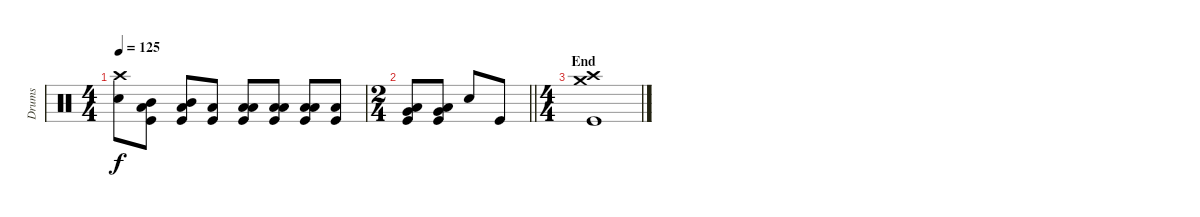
\track ("Drums" "Drums") {instrument percussion}
\staff {score}
\articulation defaults
\ts (4 4)
\tempo 125
\clef neutral
\ks c
("Crash high (hit)" "Snare (hit) 2").8{dy f} ("Mid Tom (hit)" "Low Floor Tom (hit)" "Kick (hit)").8 ("Mid Tom (hit)" "Low Floor Tom (hit)" "Kick (hit)").8 ("Low Floor Tom (hit)" "Kick (hit)").8 ("Low Tom (hit)" "Low Floor Tom (hit)" "Kick (hit)").8 ("Low Tom (hit)" "Low Floor Tom (hit)" "Kick (hit)").8 ("Low Tom (hit)" "Low Floor Tom (hit)" "Kick (hit)").8 ("Low Floor Tom (hit)" "Kick (hit)").8 |
\ts (2 4)
\barLineRight lightlight
("Very Low Tom (hit)" "Low Floor Tom (hit)" "Kick (hit)").8 ("Very Low Tom (hit)" "Low Floor Tom (hit)" "Kick (hit)").8 "Snare (hit) 2".8 "Kick (hit)".8 |
\ts (4 4)
\section ("" "End")
("Crash high (hit)" "Crash medium (hit)" "Kick (hit)").1
